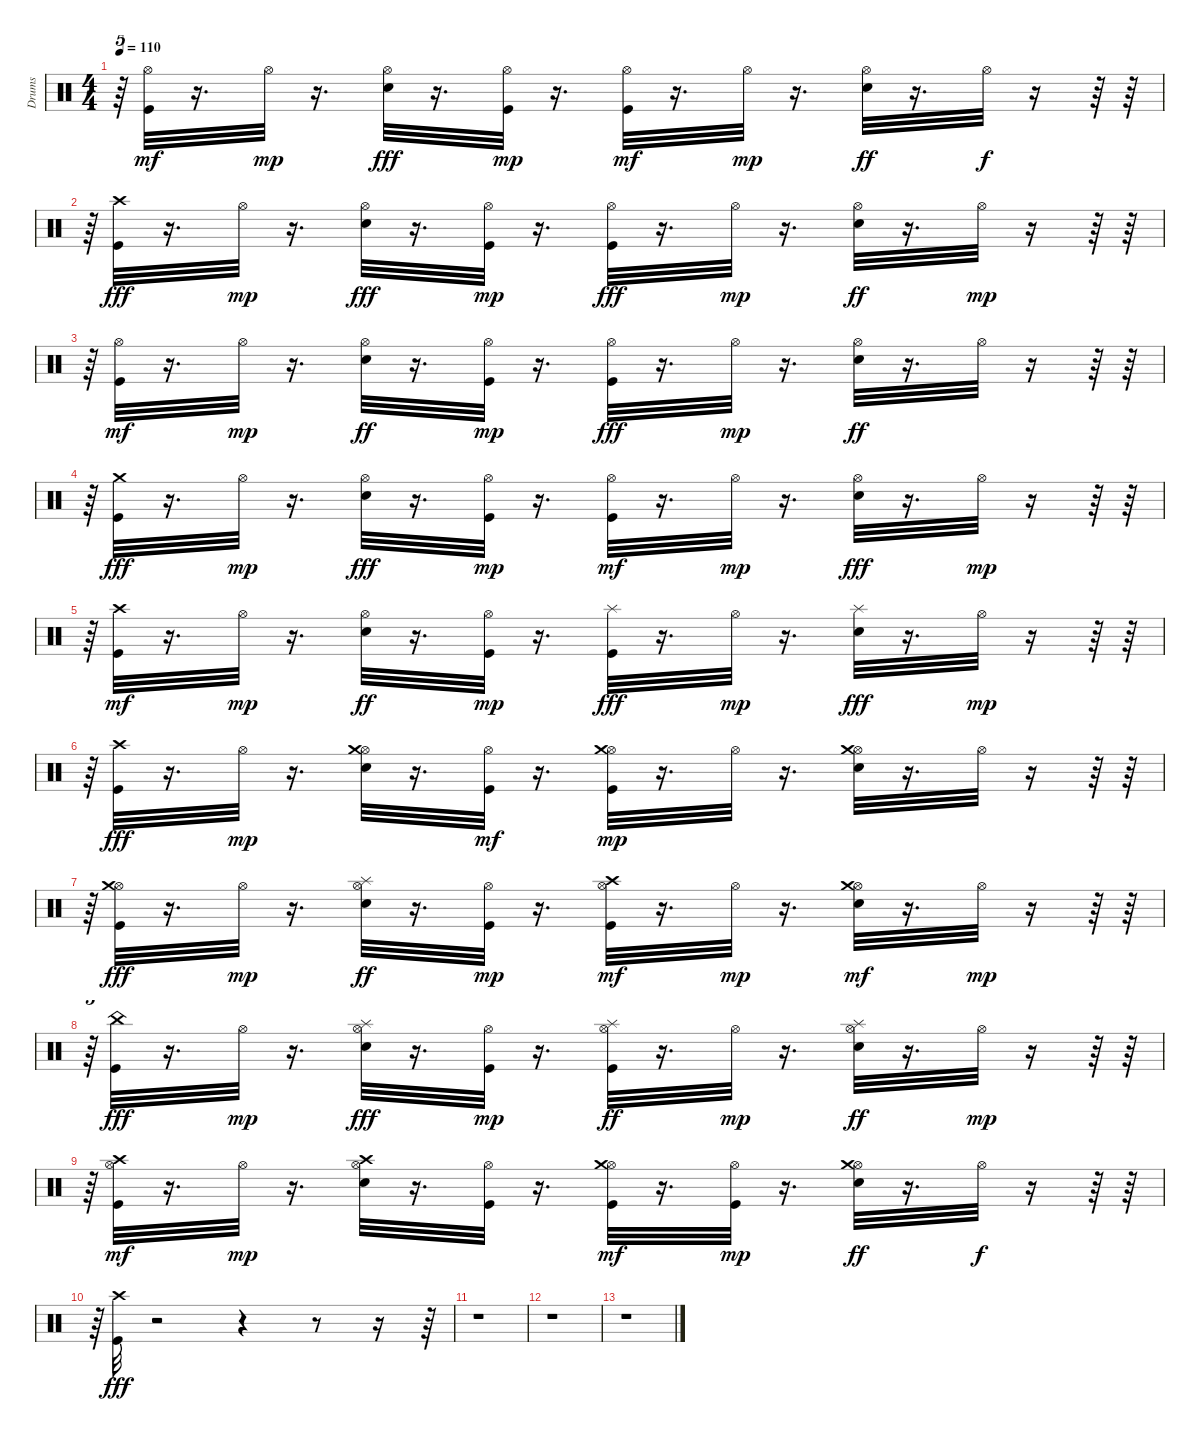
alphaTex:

\track ("Drums" "Drums") {instrument percussion}
\staff {score}
\articulation defaults
\ts (4 4)
\tempo 110
\clef neutral
\ks c
r.64{tu (5 4) dy mp} ("Kick (hit)" "Hi-Hat (open)").32{dy mf} r.16{d} "Hi-Hat (open)".32{dy mp} r.16{d} ("Electric Snare (hit)" "Hi-Hat (open)").32{dy fff} r.16{d} ("Kick (hit)" "Hi-Hat (open)").32{dy mp} r.16{d} ("Kick (hit)" "Hi-Hat (open)").32{dy mf} r.16{d} "Hi-Hat (open)".32{dy mp} r.16{d} ("Electric Snare (hit)" "Hi-Hat (open)").32{dy ff} r.16{d} "Hi-Hat (open)".32{dy f} r.16 r.64 r.64 |
r.64{tu (5 4)} ("Kick (hit)" "Crash high (hit)").32{dy fff} r.16{d} "Hi-Hat (open)".32{dy mp} r.16{d} ("Electric Snare (hit)" "Hi-Hat (open)").32{dy fff} r.16{d} ("Kick (hit)" "Hi-Hat (open)").32{dy mp} r.16{d} ("Kick (hit)" "Hi-Hat (open)").32{dy fff} r.16{d} "Hi-Hat (open)".32{dy mp} r.16{d} ("Electric Snare (hit)" "Hi-Hat (open)").32{dy ff} r.16{d} "Hi-Hat (open)".32{dy mp} r.16 r.64 r.64 |
r.64{tu (5 4)} ("Kick (hit)" "Hi-Hat (open)").32{dy mf} r.16{d} "Hi-Hat (open)".32{dy mp} r.16{d} ("Electric Snare (hit)" "Hi-Hat (open)").32{dy ff} r.16{d} ("Kick (hit)" "Hi-Hat (open)").32{dy mp} r.16{d} ("Kick (hit)" "Hi-Hat (open)").32{dy fff} r.16{d} "Hi-Hat (open)".32{dy mp} r.16{d} ("Electric Snare (hit)" "Hi-Hat (open)").32{dy ff} r.16{d} "Hi-Hat (open)".32 r.16 r.64 r.64 |
r.64{tu (5 4)} ("Kick (hit)" "Crash medium (hit)").32{dy fff} r.16{d} "Hi-Hat (open)".32{dy mp} r.16{d} ("Electric Snare (hit)" "Hi-Hat (open)").32{dy fff} r.16{d} ("Kick (hit)" "Hi-Hat (open)").32{dy mp} r.16{d} ("Kick (hit)" "Hi-Hat (open)").32{dy mf} r.16{d} "Hi-Hat (open)".32{dy mp} r.16{d} ("Electric Snare (hit)" "Hi-Hat (open)").32{dy fff} r.16{d} "Hi-Hat (open)".32{dy mp} r.16 r.64 r.64 |
r.64{tu (5 4)} ("Kick (hit)" "Crash high (hit)").32{dy mf} r.16{d} "Hi-Hat (open)".32{dy mp} r.16{d} ("Electric Snare (hit)" "Hi-Hat (open)").32{dy ff} r.16{d} ("Kick (hit)" "Hi-Hat (open)").32{dy mp} r.16{d} ("Kick (hit)" "Splash (hit)").32{dy fff} r.16{d} "Hi-Hat (open)".32{dy mp} r.16{d} ("Electric Snare (hit)" "Splash (hit)").32{dy fff} r.16{d} "Hi-Hat (open)".32{dy mp} r.16 r.64 r.64 |
r.64{tu (5 4)} ("Kick (hit)" "Crash high (hit)").32{dy fff} r.16{d} "Hi-Hat (open)".32{dy mp} r.16{d} ("Electric Snare (hit)" "Hi-Hat (open)" "Crash medium (hit)").32 r.16{d} ("Kick (hit)" "Hi-Hat (open)").32{dy mf} r.16{d} ("Kick (hit)" "Hi-Hat (open)" "Crash medium (hit)").32{dy mp} r.16{d} "Hi-Hat (open)".32 r.16{d} ("Electric Snare (hit)" "Hi-Hat (open)" "Crash medium (hit)").32 r.16{d} "Hi-Hat (open)".32 r.16 r.64 r.64 |
r.64{tu (5 4)} ("Kick (hit)" "Hi-Hat (open)" "Crash medium (hit)").32{dy fff} r.16{d} "Hi-Hat (open)".32{dy mp} r.16{d} ("Electric Snare (hit)" "Hi-Hat (open)" "Splash (hit)").32{dy ff} r.16{d} ("Kick (hit)" "Hi-Hat (open)").32{dy mp} r.16{d} ("Kick (hit)" "Hi-Hat (open)" "Crash high (hit)").32{dy mf} r.16{d} "Hi-Hat (open)".32{dy mp} r.16{d} ("Electric Snare (hit)" "Hi-Hat (open)" "Crash medium (hit)").32{dy mf} r.16{d} "Hi-Hat (open)".32{dy mp} r.16 r.64 r.64 |
r.64{tu (5 4)} ("Kick (hit)" "China (hit)").32{dy fff} r.16{d} "Hi-Hat (open)".32{dy mp} r.16{d} ("Electric Snare (hit)" "Hi-Hat (open)" "Splash (hit)").32{dy fff} r.16{d} ("Kick (hit)" "Hi-Hat (open)").32{dy mp} r.16{d} ("Kick (hit)" "Hi-Hat (open)" "Splash (hit)").32{dy ff} r.16{d} "Hi-Hat (open)".32{dy mp} r.16{d} ("Electric Snare (hit)" "Hi-Hat (open)" "Splash (hit)").32{dy ff} r.16{d} "Hi-Hat (open)".32{dy mp} r.16 r.64 r.64 |
r.64{tu (5 4)} ("Kick (hit)" "Hi-Hat (open)" "Crash high (hit)").32{dy mf} r.16{d} "Hi-Hat (open)".32{dy mp} r.16{d} ("Electric Snare (hit)" "Hi-Hat (open)" "Crash high (hit)").32 r.16{d} ("Kick (hit)" "Hi-Hat (open)").32 r.16{d} ("Kick (hit)" "Hi-Hat (open)" "Crash medium (hit)").32{dy mf} r.16{d} ("Kick (hit)" "Hi-Hat (open)").32{dy mp} r.16{d} ("Electric Snare (hit)" "Hi-Hat (open)" "Crash medium (hit)").32{dy ff} r.16{d} "Hi-Hat (open)".32{dy f} r.16 r.64 r.64 |
r.64{tu (5 4)} ("Kick (hit)" "Crash high (hit)").32{dy fff} r.2 r.4 r.8 r.16 r.64 |
r.1 |
r.1 |
r.1
